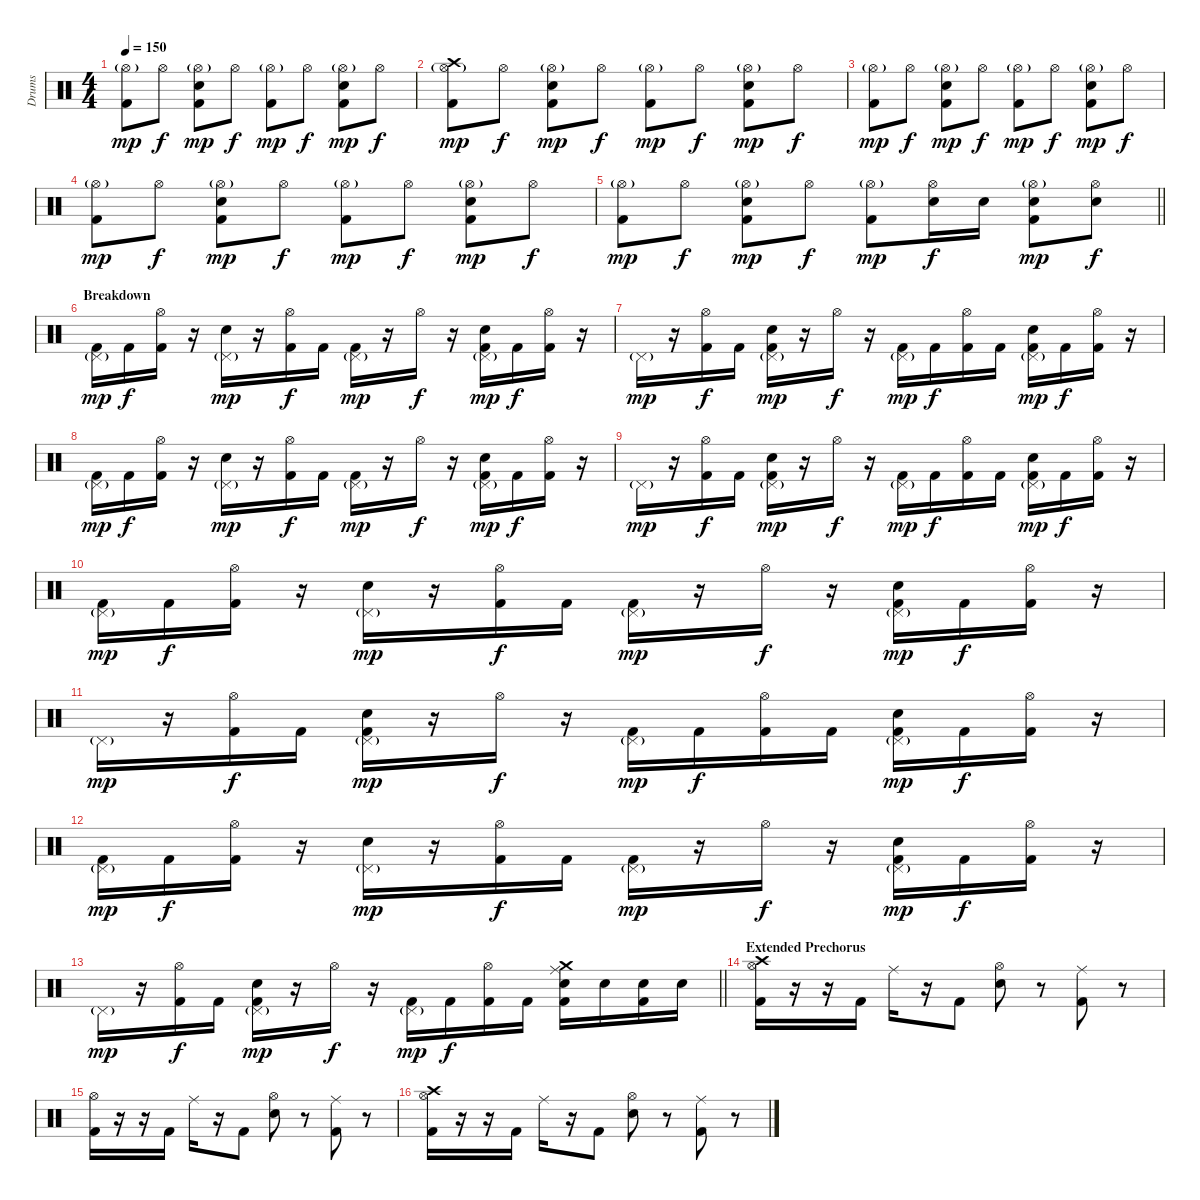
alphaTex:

\track ("Drums" "Drums") {instrument percussion}
\staff {score}
\articulation defaults
\ts (4 4)
\tempo 150
\clef neutral
\ks c
("Hi-Hat (open)"{g} "Kick (hit) 2").8{dy mp} "Hi-Hat (open)".8{dy f} ("Hi-Hat (open)"{g} "Snare (hit) 2" "Kick (hit) 2").8{dy mp} "Hi-Hat (open)".8{dy f} ("Hi-Hat (open)"{g} "Kick (hit) 2").8{dy mp} "Hi-Hat (open)".8{dy f} ("Hi-Hat (open)"{g} "Snare (hit) 2" "Kick (hit) 2").8{dy mp} "Hi-Hat (open)".8{dy f} |
("Crash high (hit)" "Hi-Hat (open)"{g} "Kick (hit) 2").8{dy mp} "Hi-Hat (open)".8{dy f} ("Hi-Hat (open)"{g} "Snare (hit) 2" "Kick (hit) 2").8{dy mp} "Hi-Hat (open)".8{dy f} ("Hi-Hat (open)"{g} "Kick (hit) 2").8{dy mp} "Hi-Hat (open)".8{dy f} ("Hi-Hat (open)"{g} "Snare (hit) 2" "Kick (hit) 2").8{dy mp} "Hi-Hat (open)".8{dy f} |
("Hi-Hat (open)"{g} "Kick (hit) 2").8{dy mp} "Hi-Hat (open)".8{dy f} ("Hi-Hat (open)"{g} "Snare (hit) 2" "Kick (hit) 2").8{dy mp} "Hi-Hat (open)".8{dy f} ("Hi-Hat (open)"{g} "Kick (hit) 2").8{dy mp} "Hi-Hat (open)".8{dy f} ("Hi-Hat (open)"{g} "Snare (hit) 2" "Kick (hit) 2").8{dy mp} "Hi-Hat (open)".8{dy f} |
("Hi-Hat (open)"{g} "Kick (hit) 2").8{dy mp} "Hi-Hat (open)".8{dy f} ("Hi-Hat (open)"{g} "Snare (hit) 2" "Kick (hit) 2").8{dy mp} "Hi-Hat (open)".8{dy f} ("Hi-Hat (open)"{g} "Kick (hit) 2").8{dy mp} "Hi-Hat (open)".8{dy f} ("Hi-Hat (open)"{g} "Snare (hit) 2" "Kick (hit) 2").8{dy mp} "Hi-Hat (open)".8{dy f} |
\barLineRight lightlight
("Hi-Hat (open)"{g} "Kick (hit) 2").8{dy mp} "Hi-Hat (open)".8{dy f} ("Hi-Hat (open)"{g} "Snare (hit) 2" "Kick (hit) 2").8{dy mp} "Hi-Hat (open)".8{dy f} ("Hi-Hat (open)"{g} "Kick (hit) 2").8{dy mp} ("Hi-Hat (open)" "Snare (hit) 2").16{dy f} "Snare (hit) 2".16 ("Hi-Hat (open)"{g} "Snare (hit) 2" "Kick (hit) 2").8{dy mp} ("Hi-Hat (open)" "Snare (hit) 2").8{dy f} |
\section ("" "Breakdown")
("Pedal Hi-Hat (hit)"{g} "Kick (hit) 2").16{dy mp} "Kick (hit) 2".16{dy f} ("Hi-Hat (open)" "Kick (hit) 2").16 r.16 ("Pedal Hi-Hat (hit)"{g} "Snare (hit) 2").16{dy mp} r.16 ("Hi-Hat (open)" "Kick (hit) 2").16{dy f} "Kick (hit) 2".16 ("Pedal Hi-Hat (hit)"{g} "Kick (hit) 2").16{dy mp} r.16 "Hi-Hat (open)".16{dy f} r.16 ("Pedal Hi-Hat (hit)"{g} "Snare (hit) 2" "Kick (hit) 2").16{dy mp} "Kick (hit) 2".16{dy f} ("Hi-Hat (open)" "Kick (hit) 2").16 r.16 |
"Pedal Hi-Hat (hit)"{g}.16{dy mp} r.16 ("Hi-Hat (open)" "Kick (hit) 2").16{dy f} "Kick (hit) 2".16 ("Pedal Hi-Hat (hit)"{g} "Snare (hit) 2" "Kick (hit) 2").16{dy mp} r.16 "Hi-Hat (open)".16{dy f} r.16 ("Pedal Hi-Hat (hit)"{g} "Kick (hit) 2").16{dy mp} "Kick (hit) 2".16{dy f} ("Hi-Hat (open)" "Kick (hit) 2").16 "Kick (hit) 2".16 ("Pedal Hi-Hat (hit)"{g} "Snare (hit) 2" "Kick (hit) 2").16{dy mp} "Kick (hit) 2".16{dy f} ("Hi-Hat (open)" "Kick (hit) 2").16 r.16 |
("Pedal Hi-Hat (hit)"{g} "Kick (hit) 2").16{dy mp} "Kick (hit) 2".16{dy f} ("Hi-Hat (open)" "Kick (hit) 2").16 r.16 ("Pedal Hi-Hat (hit)"{g} "Snare (hit) 2").16{dy mp} r.16 ("Hi-Hat (open)" "Kick (hit) 2").16{dy f} "Kick (hit) 2".16 ("Pedal Hi-Hat (hit)"{g} "Kick (hit) 2").16{dy mp} r.16 "Hi-Hat (open)".16{dy f} r.16 ("Pedal Hi-Hat (hit)"{g} "Snare (hit) 2" "Kick (hit) 2").16{dy mp} "Kick (hit) 2".16{dy f} ("Hi-Hat (open)" "Kick (hit) 2").16 r.16 |
"Pedal Hi-Hat (hit)"{g}.16{dy mp} r.16 ("Hi-Hat (open)" "Kick (hit) 2").16{dy f} "Kick (hit) 2".16 ("Pedal Hi-Hat (hit)"{g} "Snare (hit) 2" "Kick (hit) 2").16{dy mp} r.16 "Hi-Hat (open)".16{dy f} r.16 ("Pedal Hi-Hat (hit)"{g} "Kick (hit) 2").16{dy mp} "Kick (hit) 2".16{dy f} ("Hi-Hat (open)" "Kick (hit) 2").16 "Kick (hit) 2".16 ("Pedal Hi-Hat (hit)"{g} "Snare (hit) 2" "Kick (hit) 2").16{dy mp} "Kick (hit) 2".16{dy f} ("Hi-Hat (open)" "Kick (hit) 2").16 r.16 |
("Pedal Hi-Hat (hit)"{g} "Kick (hit) 2").16{dy mp} "Kick (hit) 2".16{dy f} ("Hi-Hat (open)" "Kick (hit) 2").16 r.16 ("Pedal Hi-Hat (hit)"{g} "Snare (hit) 2").16{dy mp} r.16 ("Hi-Hat (open)" "Kick (hit) 2").16{dy f} "Kick (hit) 2".16 ("Pedal Hi-Hat (hit)"{g} "Kick (hit) 2").16{dy mp} r.16 "Hi-Hat (open)".16{dy f} r.16 ("Pedal Hi-Hat (hit)"{g} "Snare (hit) 2" "Kick (hit) 2").16{dy mp} "Kick (hit) 2".16{dy f} ("Hi-Hat (open)" "Kick (hit) 2").16 r.16 |
"Pedal Hi-Hat (hit)"{g}.16{dy mp} r.16 ("Hi-Hat (open)" "Kick (hit) 2").16{dy f} "Kick (hit) 2".16 ("Pedal Hi-Hat (hit)"{g} "Snare (hit) 2" "Kick (hit) 2").16{dy mp} r.16 "Hi-Hat (open)".16{dy f} r.16 ("Pedal Hi-Hat (hit)"{g} "Kick (hit) 2").16{dy mp} "Kick (hit) 2".16{dy f} ("Hi-Hat (open)" "Kick (hit) 2").16 "Kick (hit) 2".16 ("Pedal Hi-Hat (hit)"{g} "Snare (hit) 2" "Kick (hit) 2").16{dy mp} "Kick (hit) 2".16{dy f} ("Hi-Hat (open)" "Kick (hit) 2").16 r.16 |
("Pedal Hi-Hat (hit)"{g} "Kick (hit) 2").16{dy mp} "Kick (hit) 2".16{dy f} ("Hi-Hat (open)" "Kick (hit) 2").16 r.16 ("Pedal Hi-Hat (hit)"{g} "Snare (hit) 2").16{dy mp} r.16 ("Hi-Hat (open)" "Kick (hit) 2").16{dy f} "Kick (hit) 2".16 ("Pedal Hi-Hat (hit)"{g} "Kick (hit) 2").16{dy mp} r.16 "Hi-Hat (open)".16{dy f} r.16 ("Pedal Hi-Hat (hit)"{g} "Snare (hit) 2" "Kick (hit) 2").16{dy mp} "Kick (hit) 2".16{dy f} ("Hi-Hat (open)" "Kick (hit) 2").16 r.16 |
\barLineRight lightlight "Pedal Hi-Hat (hit)"{g}.16{dy mp}
r.16 ("Hi-Hat (open)" "Kick (hit) 2").16{dy f} "Kick (hit) 2".16 ("Pedal Hi-Hat (hit)"{g} "Snare (hit) 2" "Kick (hit) 2").16{dy mp} r.16 "Hi-Hat (open)".16{dy f} r.16 ("Pedal Hi-Hat (hit)"{g} "Kick (hit) 2").16{dy mp} "Kick (hit) 2".16{dy f} ("Hi-Hat (open)" "Kick (hit) 2").16 "Kick (hit) 2".16 ("Crash medium (hit)" "Ride (middle)" "Snare (hit) 2" "Kick (hit) 2").16 "Snare (hit) 2".16 ("Snare (hit) 2" "Kick (hit) 2").16 "Snare (hit) 2".16 |
\section ("" "Extended Prechorus")
("Crash high (hit)" "Hi-Hat (open)" "Kick (hit) 2").16 r.16 r.16 "Kick (hit) 2".16 "Ride (middle)".16 r.16 "Kick (hit) 2".8 ("Hi-Hat (open)" "Snare (hit) 2").8 r.8 ("Ride (middle)" "Kick (hit) 2").8 r.8 |
("Hi-Hat (open)" "Kick (hit) 2").16 r.16 r.16 "Kick (hit) 2".16 "Ride (middle)".16 r.16 "Kick (hit) 2".8 ("Hi-Hat (open)" "Snare (hit) 2").8 r.8 ("Ride (middle)" "Kick (hit) 2").8 r.8 |
("Crash high (hit)" "Hi-Hat (open)" "Kick (hit) 2").16 r.16 r.16 "Kick (hit) 2".16 "Ride (middle)".16 r.16 "Kick (hit) 2".8 ("Hi-Hat (open)" "Snare (hit) 2").8 r.8 ("Ride (middle)" "Kick (hit) 2").8 r.8
